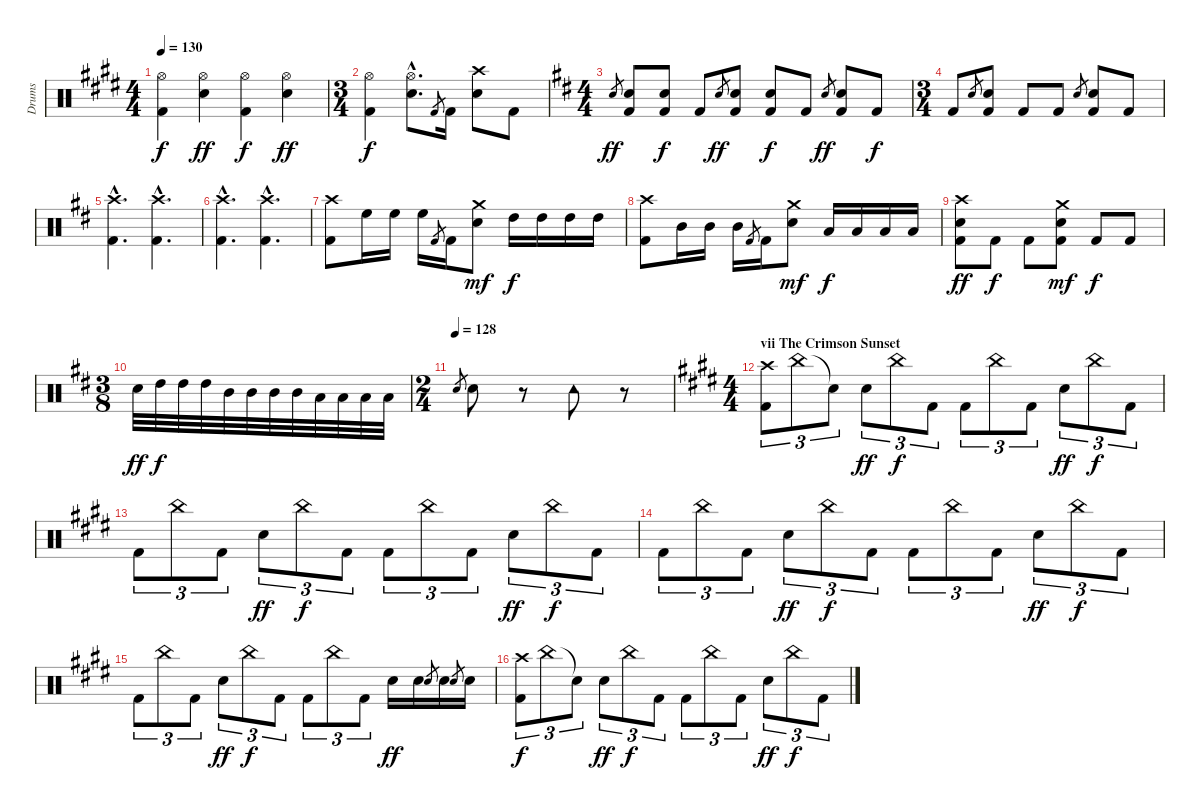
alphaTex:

\track ("Drums" "Drums") {instrument percussion}
\staff {score}
\articulation defaults
\ts (4 4)
\tempo 130
\clef neutral
\ks e
("Kick (hit) 2" "Hi-Hat (open)").4{dy f} ("Electric Snare (hit)" "Hi-Hat (open)").4{dy ff} ("Kick (hit) 2" "Hi-Hat (open)").4{dy f} ("Electric Snare (hit)" "Hi-Hat (open)").4{dy ff} |
\ts (3 4)
("Kick (hit) 2" "Hi-Hat (open)").4{dy f} ("Electric Snare (hit)"{hac} "Hi-Hat (open)"{hac}).8{d} "Kick (hit) 2".8{gr} "Kick (hit) 2".16 ("Electric Snare (hit)" "Crash high (hit)").8 "Kick (hit) 2".8 |
\ts (4 4)
\ks d "Electric Snare (hit)".8{gr dy ff}
("Kick (hit) 2" "Electric Snare (hit)").8 ("Kick (hit) 2" "Electric Snare (hit)").8{dy f} "Kick (hit) 2".8 "Electric Snare (hit)".8{gr dy ff} ("Kick (hit) 2" "Electric Snare (hit)").8 ("Kick (hit) 2" "Electric Snare (hit)").8{dy f} "Kick (hit) 2".8 "Electric Snare (hit)".8{gr dy ff} ("Kick (hit) 2" "Electric Snare (hit)").8 "Kick (hit) 2".8{dy f} |
\ts (3 4)
"Kick (hit) 2".8 "Electric Snare (hit)".8{gr} ("Kick (hit) 2" "Electric Snare (hit)").8 "Kick (hit) 2".8 "Kick (hit) 2".8 "Electric Snare (hit)".8{gr} ("Kick (hit) 2" "Electric Snare (hit)").8 "Kick (hit) 2".8 |
("Kick (hit) 2"{hac} "Crash high (hit)"{hac}).4{d} ("Kick (hit) 2"{hac} "Crash high (hit)"{hac}).4{d} |
("Kick (hit) 2"{hac} "Crash high (hit)"{hac}).4{d} ("Kick (hit) 2"{hac} "Crash high (hit)"{hac}).4{d} |
("Kick (hit) 2" "Crash high (hit)").8 "High Floor Tom (hit)".16 "High Floor Tom (hit)".16 "High Floor Tom (hit)".16 "Kick (hit) 2".8{gr} "Kick (hit) 2".16 ("Electric Snare (hit)" "Crash medium (hit)").8{dy mf} "High Tom (hit)".16{dy f} "High Tom (hit)".16 "High Tom (hit)".16 "High Tom (hit)".16 |
("Kick (hit) 2" "Crash high (hit)").8 "Mid Tom (hit)".16 "Mid Tom (hit)".16 "Mid Tom (hit)".16 "Kick (hit) 2".8{gr} "Kick (hit) 2".16 ("Electric Snare (hit)" "Crash medium (hit)").8{dy mf} "Low Tom (hit)".16{dy f} "Low Tom (hit)".16 "Low Tom (hit)".16 "Low Tom (hit)".16 |
("Kick (hit) 2" "Electric Snare (hit)" "Crash high (hit)").8{dy ff} "Kick (hit) 2".8{dy f} "Kick (hit) 2".8 ("Kick (hit) 2" "Electric Snare (hit)" "Crash medium (hit)").8{dy mf} "Kick (hit) 2".8{dy f} "Kick (hit) 2".8 |
\ts (3 8)
"Electric Snare (hit)".32{dy ff} "High Tom (hit)".32{dy f} "High Tom (hit)".32 "High Tom (hit)".32 "Mid Tom (hit)".32 "Mid Tom (hit)".32 "Mid Tom (hit)".32 "Mid Tom (hit)".32 "Low Tom (hit)".32 "Low Tom (hit)".32 "Low Tom (hit)".32 "Low Tom (hit)".32 |
\ts (2 4)
\tempo (128)
"Electric Snare (hit)".8{gr} "Electric Snare (hit)".8 r.8 "Tambourine (hit)".8 r.8 |
\ts (4 4)
\section ("" "vii The Crimson Sunset")
\ks e
("Kick (hit) 2" "Crash high (hit)").8{tu (3 2)} "China (hit)".8{tu (3 2)} "Snare (hit)"{t}.8{tu (3 2)} "Electric Snare (hit)".8{tu (3 2) dy ff} "China (hit)".8{tu (3 2) dy f} "Kick (hit) 2".8{tu (3 2)} "Kick (hit) 2".8{tu (3 2)} "China (hit)".8{tu (3 2)} "Kick (hit) 2".8{tu (3 2)} "Electric Snare (hit)".8{tu (3 2) dy ff} "China (hit)".8{tu (3 2) dy f} "Kick (hit) 2".8{tu (3 2)} |
"Kick (hit) 2".8{tu (3 2)} "China (hit)".8{tu (3 2)} "Kick (hit) 2".8{tu (3 2)} "Electric Snare (hit)".8{tu (3 2) dy ff} "China (hit)".8{tu (3 2) dy f} "Kick (hit) 2".8{tu (3 2)} "Kick (hit) 2".8{tu (3 2)} "China (hit)".8{tu (3 2)} "Kick (hit) 2".8{tu (3 2)} "Electric Snare (hit)".8{tu (3 2) dy ff} "China (hit)".8{tu (3 2) dy f} "Kick (hit) 2".8{tu (3 2)} |
"Kick (hit) 2".8{tu (3 2)} "China (hit)".8{tu (3 2)} "Kick (hit) 2".8{tu (3 2)} "Electric Snare (hit)".8{tu (3 2) dy ff} "China (hit)".8{tu (3 2) dy f} "Kick (hit) 2".8{tu (3 2)} "Kick (hit) 2".8{tu (3 2)} "China (hit)".8{tu (3 2)} "Kick (hit) 2".8{tu (3 2)} "Electric Snare (hit)".8{tu (3 2) dy ff} "China (hit)".8{tu (3 2) dy f} "Kick (hit) 2".8{tu (3 2)} |
"Kick (hit) 2".8{tu (3 2)} "China (hit)".8{tu (3 2)} "Kick (hit) 2".8{tu (3 2)} "Electric Snare (hit)".8{tu (3 2) dy ff} "China (hit)".8{tu (3 2) dy f} "Kick (hit) 2".8{tu (3 2)} "Kick (hit) 2".8{tu (3 2)} "China (hit)".8{tu (3 2)} "Kick (hit) 2".8{tu (3 2)} "Electric Snare (hit)".16{dy ff} "Electric Snare (hit)".16 "Electric Snare (hit)".8{gr} "Electric Snare (hit)".16 "Electric Snare (hit)".8{gr} "Electric Snare (hit)".16 |
("Kick (hit) 2" "Crash high (hit)").8{tu (3 2) dy f} "China (hit)".8{tu (3 2)} "Snare (hit)"{t}.8{tu (3 2)} "Electric Snare (hit)".8{tu (3 2) dy ff} "China (hit)".8{tu (3 2) dy f} "Kick (hit) 2".8{tu (3 2)} "Kick (hit) 2".8{tu (3 2)} "China (hit)".8{tu (3 2)} "Kick (hit) 2".8{tu (3 2)} "Electric Snare (hit)".8{tu (3 2) dy ff} "China (hit)".8{tu (3 2) dy f} "Kick (hit) 2".8{tu (3 2)}
